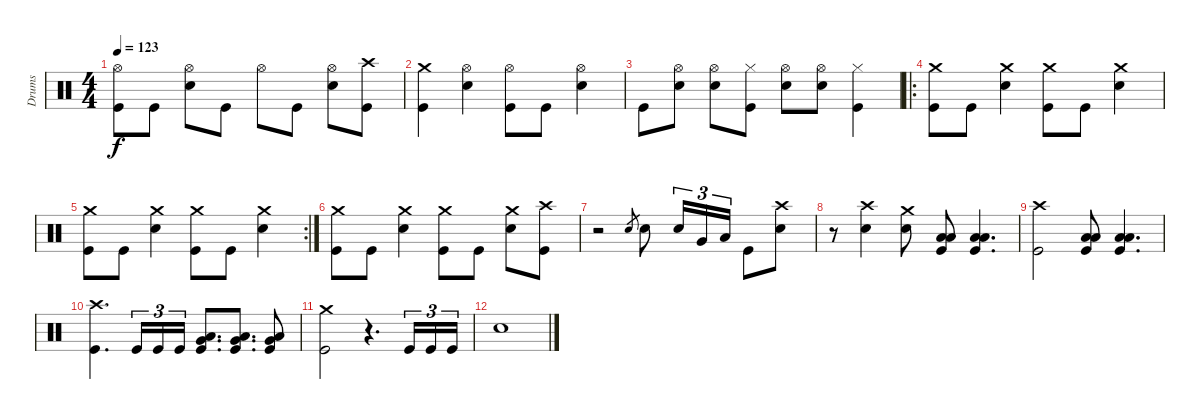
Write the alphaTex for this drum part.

\track ("Drums" "Drums") {instrument percussion}
\staff {score}
\articulation defaults
\ts (4 4)
\tempo 123
\clef neutral
\ks c
("Hi-Hat (open)" "Kick (hit)").8{dy f} "Kick (hit)".8 ("Hi-Hat (open)" "Snare (hit) 2").8 "Kick (hit)".8 "Hi-Hat (open)".8 "Kick (hit)".8 ("Hi-Hat (open)" "Snare (hit) 2").8 ("Crash high (hit)" "Kick (hit)").8 |
("Crash medium (hit)" "Kick (hit)").4 ("Hi-Hat (open)" "Snare (hit) 2").4 ("Hi-Hat (open)" "Kick (hit)").8 "Kick (hit)".8 ("Hi-Hat (open)" "Snare (hit) 2").4 |
"Kick (hit)".8 ("Hi-Hat (open)" "Snare (hit) 2").8 ("Hi-Hat (open)" "Snare (hit) 2").8 ("Hi-Hat (closed)" "Kick (hit)").8 ("Hi-Hat (open)" "Snare (hit) 2").8 ("Hi-Hat (open)" "Snare (hit) 2").8 ("Hi-Hat (closed)" "Kick (hit)").4 |
\ro
("Crash medium (hit)" "Kick (hit)").8 "Kick (hit)".8 ("Crash medium (hit)" "Snare (hit) 2").4 ("Crash medium (hit)" "Kick (hit)").8 "Kick (hit)".8 ("Crash medium (hit)" "Snare (hit) 2").4 |
\rc 2
("Crash medium (hit)" "Kick (hit)").8 "Kick (hit)".8 ("Crash medium (hit)" "Snare (hit) 2").4 ("Crash medium (hit)" "Kick (hit)").8 "Kick (hit)".8 ("Crash medium (hit)" "Snare (hit) 2").4 |
("Crash medium (hit)" "Kick (hit)").8 "Kick (hit)".8 ("Crash medium (hit)" "Snare (hit) 2").4 ("Crash medium (hit)" "Kick (hit)").8 "Kick (hit)".8 ("Crash medium (hit)" "Snare (hit) 2").8 ("Crash high (hit)" "Kick (hit)").8 |
r.2 "Snare (hit) 2".8{gr} "Snare (hit) 2".8 "Snare (hit) 2".16{tu (3 2)} "Very Low Tom (hit)".16{tu (3 2)} "Low Tom (hit)".16{tu (3 2)} "Kick (hit)".8 ("Crash high (hit)" "Snare (hit) 2").8 |
r.8 ("Crash high (hit)" "Snare (hit) 2").4 ("Crash medium (hit)" "Snare (hit) 2").8 ("Low Tom (hit)" "Low Floor Tom (hit)" "Kick (hit)").8 ("Low Tom (hit)" "Low Floor Tom (hit)" "Kick (hit)").4{d} |
("Crash high (hit)" "Kick (hit)").2 ("Low Tom (hit)" "Low Floor Tom (hit)" "Kick (hit)").8 ("Low Tom (hit)" "Low Floor Tom (hit)" "Kick (hit)").4{d} |
("Crash high (hit)" "Kick (hit)").4{d} "Kick (hit)".16{tu (3 2)} "Kick (hit)".16{tu (3 2)} "Kick (hit)".16{tu (3 2)} ("Very Low Tom (hit)" "Low Floor Tom (hit)" "Kick (hit)").8{d} ("Very Low Tom (hit)" "Low Floor Tom (hit)" "Kick (hit)").8{d} ("Very Low Tom (hit)" "Low Floor Tom (hit)" "Kick (hit)").8 |
("Crash medium (hit)" "Kick (hit)").2 r.4{d} "Kick (hit)".16{tu (3 2)} "Kick (hit)".16{tu (3 2)} "Kick (hit)".16{tu (3 2)} |
"Snare (hit) 2".1
